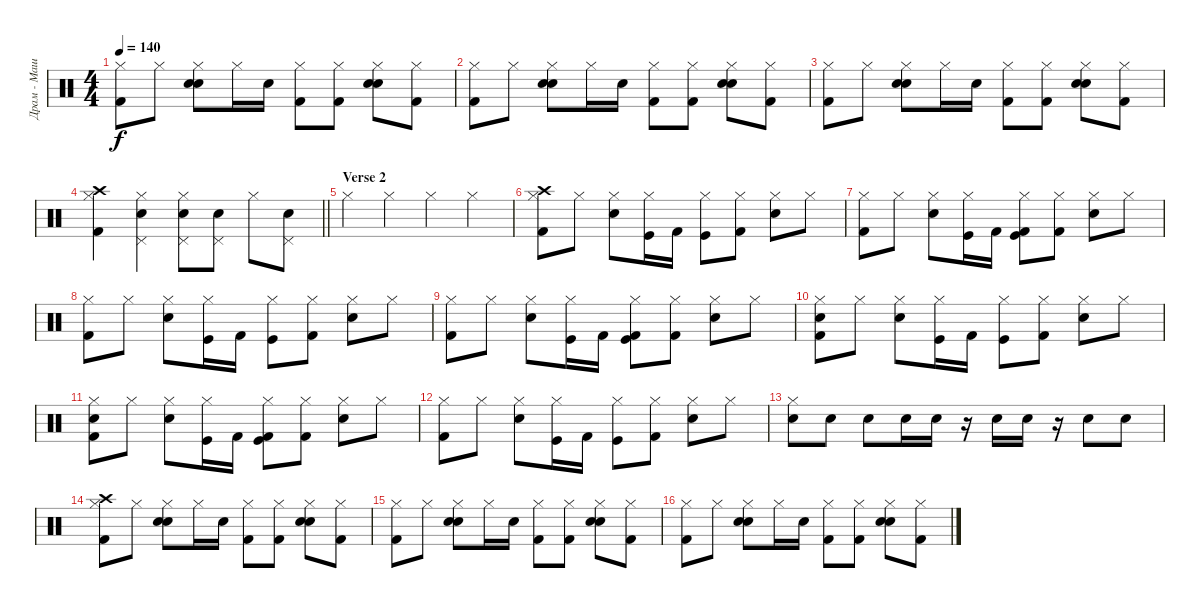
\track ("Драм - Машина" "Драм - Маш") {instrument percussion}
\staff {score}
\articulation defaults
\ts (4 4)
\tempo 140
\clef neutral
\ks c
("Kick (hit) 2" "Hi-Hat (closed)").8{dy f} "Hi-Hat (closed)".8 ("Hand Clap (hit)" "Snare (hit) 2" "Hi-Hat (closed)").8 "Hi-Hat (closed)".16 "Snare (hit) 2".16 ("Kick (hit) 2" "Hi-Hat (closed)").8 ("Hi-Hat (closed)" "Kick (hit) 2").8 ("Hand Clap (hit)" "Snare (hit) 2" "Hi-Hat (closed)").8 ("Hi-Hat (closed)" "Kick (hit) 2").8 |
("Kick (hit) 2" "Hi-Hat (closed)").8 "Hi-Hat (closed)".8 ("Hand Clap (hit)" "Snare (hit) 2" "Hi-Hat (closed)").8 "Hi-Hat (closed)".16 "Snare (hit) 2".16 ("Kick (hit) 2" "Hi-Hat (closed)").8 ("Hi-Hat (closed)" "Kick (hit) 2").8 ("Hand Clap (hit)" "Snare (hit) 2" "Hi-Hat (closed)").8 ("Hi-Hat (closed)" "Kick (hit) 2").8 |
("Kick (hit) 2" "Hi-Hat (closed)").8 "Hi-Hat (closed)".8 ("Hand Clap (hit)" "Snare (hit) 2" "Hi-Hat (closed)").8 "Hi-Hat (closed)".16 "Snare (hit) 2".16 ("Kick (hit) 2" "Hi-Hat (closed)").8 ("Hi-Hat (closed)" "Kick (hit) 2").8 ("Hand Clap (hit)" "Snare (hit) 2" "Hi-Hat (closed)").8 ("Hi-Hat (closed)" "Kick (hit) 2").8 |
\barLineRight lightlight
("Hi-Hat (closed)" "Crash high (hit)" "Kick (hit) 2").4 ("Hi-Hat (closed)" "Pedal Hi-Hat (hit)" "Snare (hit) 2").4 ("Hi-Hat (closed)" "Pedal Hi-Hat (hit)" "Snare (hit) 2").8 ("Pedal Hi-Hat (hit)" "Snare (hit) 2").8 "Hi-Hat (closed)".8 ("Pedal Hi-Hat (hit)" "Snare (hit) 2").8 |
\section ("" "Verse 2")
"Hi-Hat (closed)".4 "Hi-Hat (closed)".4 "Hi-Hat (closed)".4 "Hi-Hat (closed)".4 |
("Crash high (hit)" "Hi-Hat (closed)" "Kick (hit) 2").8 "Hi-Hat (closed)".8 ("Hi-Hat (closed)" "Electric Snare (hit)").8 ("Hi-Hat (closed)" "Kick (hit)").16 "Kick (hit) 2".16 ("Hi-Hat (closed)" "Kick (hit)").8 ("Hi-Hat (closed)" "Kick (hit) 2").8 ("Hi-Hat (closed)" "Electric Snare (hit)").8 "Hi-Hat (closed)".8 |
("Hi-Hat (closed)" "Kick (hit) 2").8 "Hi-Hat (closed)".8 ("Hi-Hat (closed)" "Electric Snare (hit)").8 ("Hi-Hat (closed)" "Kick (hit)").16 "Kick (hit) 2".16 ("Kick (hit) 2" "Hi-Hat (closed)" "Kick (hit)").8 ("Hi-Hat (closed)" "Kick (hit) 2").8 ("Hi-Hat (closed)" "Electric Snare (hit)").8 "Hi-Hat (closed)".8 |
("Hi-Hat (closed)" "Kick (hit) 2").8 "Hi-Hat (closed)".8 ("Hi-Hat (closed)" "Electric Snare (hit)").8 ("Hi-Hat (closed)" "Kick (hit)").16 "Kick (hit) 2".16 ("Hi-Hat (closed)" "Kick (hit)").8 ("Hi-Hat (closed)" "Kick (hit) 2").8 ("Hi-Hat (closed)" "Electric Snare (hit)").8 "Hi-Hat (closed)".8 |
("Hi-Hat (closed)" "Kick (hit) 2").8 "Hi-Hat (closed)".8 ("Hi-Hat (closed)" "Electric Snare (hit)").8 ("Hi-Hat (closed)" "Kick (hit)").16 "Kick (hit) 2".16 ("Kick (hit) 2" "Hi-Hat (closed)" "Kick (hit)").8 ("Hi-Hat (closed)" "Kick (hit) 2").8 ("Hi-Hat (closed)" "Electric Snare (hit)").8 "Hi-Hat (closed)".8 |
("Snare (hit) 2" "Hi-Hat (closed)" "Kick (hit) 2").8 "Hi-Hat (closed)".8 ("Hi-Hat (closed)" "Electric Snare (hit)").8 ("Hi-Hat (closed)" "Kick (hit)").16 "Kick (hit) 2".16 ("Hi-Hat (closed)" "Kick (hit)").8 ("Hi-Hat (closed)" "Kick (hit) 2").8 ("Electric Snare (hit)" "Hi-Hat (closed)").8 "Hi-Hat (closed)".8 |
("Snare (hit) 2" "Hi-Hat (closed)" "Kick (hit) 2").8 "Hi-Hat (closed)".8 ("Hi-Hat (closed)" "Electric Snare (hit)").8 ("Hi-Hat (closed)" "Kick (hit)").16 "Kick (hit) 2".16 ("Kick (hit) 2" "Hi-Hat (closed)" "Kick (hit)").8 ("Hi-Hat (closed)" "Kick (hit) 2").8 ("Hi-Hat (closed)" "Electric Snare (hit)").8 "Hi-Hat (closed)".8 |
("Hi-Hat (closed)" "Kick (hit) 2").8 "Hi-Hat (closed)".8 ("Hi-Hat (closed)" "Electric Snare (hit)").8 ("Hi-Hat (closed)" "Kick (hit)").16 "Kick (hit) 2".16 ("Hi-Hat (closed)" "Kick (hit)").8 ("Hi-Hat (closed)" "Kick (hit) 2").8 ("Hi-Hat (closed)" "Electric Snare (hit)").8 "Hi-Hat (closed)".8 |
("Hi-Hat (closed)" "Snare (hit) 2").8 "Electric Snare (hit)".8 "Electric Snare (hit)".8 "Snare (hit) 2".16 "Electric Snare (hit)".16 r.16 "Electric Snare (hit)".16 "Snare (hit) 2".16 r.16 "Electric Snare (hit)".8 "Electric Snare (hit)".8 |
("Kick (hit) 2" "Hi-Hat (closed)" "Crash high (hit)").8 "Hi-Hat (closed)".8 ("Hand Clap (hit)" "Snare (hit) 2" "Hi-Hat (closed)").8 "Hi-Hat (closed)".16 "Snare (hit) 2".16 ("Kick (hit) 2" "Hi-Hat (closed)").8 ("Hi-Hat (closed)" "Kick (hit) 2").8 ("Hand Clap (hit)" "Snare (hit) 2" "Hi-Hat (closed)").8 ("Hi-Hat (closed)" "Kick (hit) 2").8 |
("Kick (hit) 2" "Hi-Hat (closed)").8 "Hi-Hat (closed)".8 ("Hand Clap (hit)" "Snare (hit) 2" "Hi-Hat (closed)").8 "Hi-Hat (closed)".16 "Snare (hit) 2".16 ("Kick (hit) 2" "Hi-Hat (closed)").8 ("Hi-Hat (closed)" "Kick (hit) 2").8 ("Hand Clap (hit)" "Snare (hit) 2" "Hi-Hat (closed)").8 ("Hi-Hat (closed)" "Kick (hit) 2").8 |
("Kick (hit) 2" "Hi-Hat (closed)").8 "Hi-Hat (closed)".8 ("Hand Clap (hit)" "Snare (hit) 2" "Hi-Hat (closed)").8 "Hi-Hat (closed)".16 "Snare (hit) 2".16 ("Kick (hit) 2" "Hi-Hat (closed)").8 ("Hi-Hat (closed)" "Kick (hit) 2").8 ("Hand Clap (hit)" "Snare (hit) 2" "Hi-Hat (closed)").8 ("Hi-Hat (closed)" "Kick (hit) 2").8
